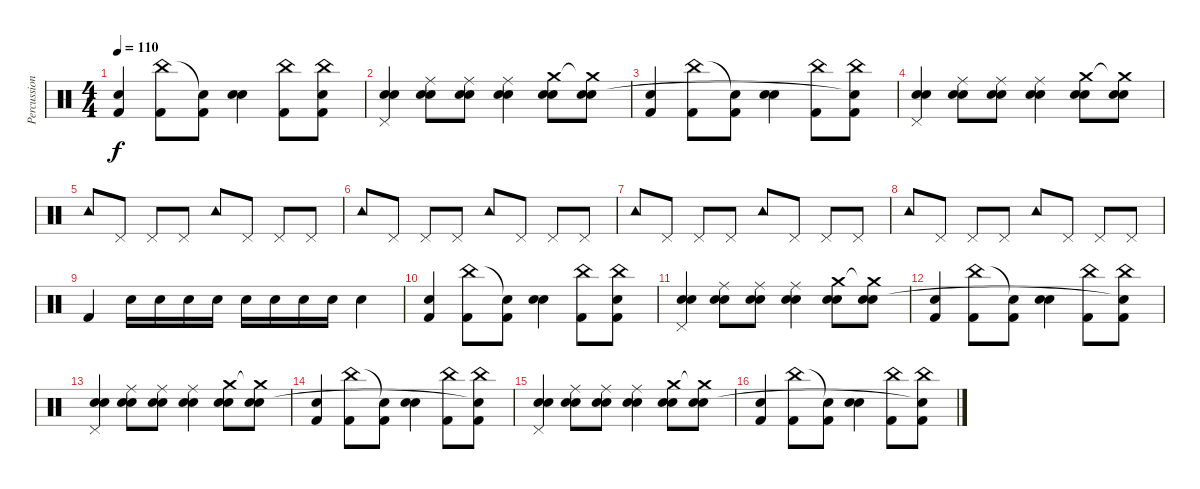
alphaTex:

\track ("Percussion" "Percussion") {instrument percussion}
\staff {score}
\articulation defaults
\ts (4 4)
\tempo 110
\clef neutral
\ks c
("Kick (hit) 2" "Electric Snare (hit)").4{dy f} ("Kick (hit) 2" "China (hit)").8 ("Kick (hit) 2" "Snare (hit)"{t}).8 ("Hand Clap (hit)" "Electric Snare (hit)").4 ("Kick (hit) 2" "China (hit)").8 ("Kick (hit) 2" "China (hit)" "Snare (hit)"{t}).8 |
("Pedal Hi-Hat (hit)" "Electric Snare (hit)" "Snare (hit) 2").4 ("Snare (hit) 2" "Ride (middle)" "Electric Snare (hit)").8 ("Snare (hit) 2" "Ride (middle)" "Electric Snare (hit)").8 ("Snare (hit) 2" "Ride (middle)" "Electric Snare (hit)").4 ("Snare (hit) 2" "Crash medium (hit)" "Electric Snare (hit)").8 ("Snare (hit) 2" "Crash medium (hit)"{t} "Electric Snare (hit)").8 |
("Kick (hit) 2" "Electric Snare (hit)").4 ("Kick (hit) 2" "China (hit)").8 ("Kick (hit) 2" "Snare (hit)"{t}).8 ("Hand Clap (hit)" "Electric Snare (hit)").4 ("Kick (hit) 2" "China (hit)").8 ("Kick (hit) 2" "China (hit)" "Snare (hit)"{t}).8 |
("Pedal Hi-Hat (hit)" "Electric Snare (hit)" "Snare (hit) 2").4 ("Snare (hit) 2" "Ride (middle)" "Electric Snare (hit)").8 ("Snare (hit) 2" "Ride (middle)" "Electric Snare (hit)").8 ("Snare (hit) 2" "Ride (middle)" "Electric Snare (hit)").4 ("Snare (hit) 2" "Crash medium (hit)" "Electric Snare (hit)").8 ("Snare (hit) 2" "Crash medium (hit)"{t} "Electric Snare (hit)").8 |
"Tambourine (hit)".8 "Pedal Hi-Hat (hit)".8 "Pedal Hi-Hat (hit)".8 "Pedal Hi-Hat (hit)".8 "Tambourine (hit)".8 "Pedal Hi-Hat (hit)".8 "Pedal Hi-Hat (hit)".8 "Pedal Hi-Hat (hit)".8 |
"Tambourine (hit)".8 "Pedal Hi-Hat (hit)".8 "Pedal Hi-Hat (hit)".8 "Pedal Hi-Hat (hit)".8 "Tambourine (hit)".8 "Pedal Hi-Hat (hit)".8 "Pedal Hi-Hat (hit)".8 "Pedal Hi-Hat (hit)".8 |
"Tambourine (hit)".8 "Pedal Hi-Hat (hit)".8 "Pedal Hi-Hat (hit)".8 "Pedal Hi-Hat (hit)".8 "Tambourine (hit)".8 "Pedal Hi-Hat (hit)".8 "Pedal Hi-Hat (hit)".8 "Pedal Hi-Hat (hit)".8 |
"Tambourine (hit)".8 "Pedal Hi-Hat (hit)".8 "Pedal Hi-Hat (hit)".8 "Pedal Hi-Hat (hit)".8 "Tambourine (hit)".8 "Pedal Hi-Hat (hit)".8 "Pedal Hi-Hat (hit)".8 "Pedal Hi-Hat (hit)".8 |
"Kick (hit) 2".4 "Electric Snare (hit)".16 "Electric Snare (hit)".16 "Electric Snare (hit)".16 "Electric Snare (hit)".16 "Electric Snare (hit)".16 "Electric Snare (hit)".16 "Electric Snare (hit)".16 "Electric Snare (hit)".16 "Electric Snare (hit)".4 |
("Kick (hit) 2" "Electric Snare (hit)").4 ("Kick (hit) 2" "China (hit)").8 ("Kick (hit) 2" "Snare (hit)"{t}).8 ("Hand Clap (hit)" "Electric Snare (hit)").4 ("Kick (hit) 2" "China (hit)").8 ("Kick (hit) 2" "China (hit)" "Snare (hit)").8 |
("Pedal Hi-Hat (hit)" "Electric Snare (hit)" "Snare (hit) 2").4 ("Snare (hit) 2" "Ride (middle)" "Electric Snare (hit)").8 ("Snare (hit) 2" "Ride (middle)" "Electric Snare (hit)").8 ("Snare (hit) 2" "Ride (middle)" "Electric Snare (hit)").4 ("Snare (hit) 2" "Crash medium (hit)" "Electric Snare (hit)").8 ("Snare (hit) 2" "Crash medium (hit)"{t} "Electric Snare (hit)").8 |
("Kick (hit) 2" "Electric Snare (hit)").4 ("Kick (hit) 2" "China (hit)").8 ("Kick (hit) 2" "Snare (hit)"{t}).8 ("Hand Clap (hit)" "Electric Snare (hit)").4 ("Kick (hit) 2" "China (hit)").8 ("Kick (hit) 2" "China (hit)" "Snare (hit)"{t}).8 |
("Pedal Hi-Hat (hit)" "Electric Snare (hit)" "Snare (hit) 2").4 ("Snare (hit) 2" "Ride (middle)" "Electric Snare (hit)").8 ("Snare (hit) 2" "Ride (middle)" "Electric Snare (hit)").8 ("Snare (hit) 2" "Ride (middle)" "Electric Snare (hit)").4 ("Snare (hit) 2" "Crash medium (hit)" "Electric Snare (hit)").8 ("Snare (hit) 2" "Crash medium (hit)"{t} "Electric Snare (hit)").8 |
("Kick (hit) 2" "Electric Snare (hit)").4 ("Kick (hit) 2" "China (hit)").8 ("Kick (hit) 2" "Snare (hit)"{t}).8 ("Hand Clap (hit)" "Electric Snare (hit)").4 ("Kick (hit) 2" "China (hit)").8 ("Kick (hit) 2" "China (hit)" "Snare (hit)"{t}).8 |
("Pedal Hi-Hat (hit)" "Electric Snare (hit)" "Snare (hit) 2").4 ("Snare (hit) 2" "Ride (middle)" "Electric Snare (hit)").8 ("Snare (hit) 2" "Ride (middle)" "Electric Snare (hit)").8 ("Snare (hit) 2" "Ride (middle)" "Electric Snare (hit)").4 ("Snare (hit) 2" "Crash medium (hit)" "Electric Snare (hit)").8 ("Snare (hit) 2" "Crash medium (hit)"{t} "Electric Snare (hit)").8 |
("Kick (hit) 2" "Electric Snare (hit)").4 ("Kick (hit) 2" "China (hit)").8 ("Kick (hit) 2" "Snare (hit)"{t}).8 ("Hand Clap (hit)" "Electric Snare (hit)").4 ("Kick (hit) 2" "China (hit)").8 ("Kick (hit) 2" "China (hit)" "Snare (hit)"{t}).8
